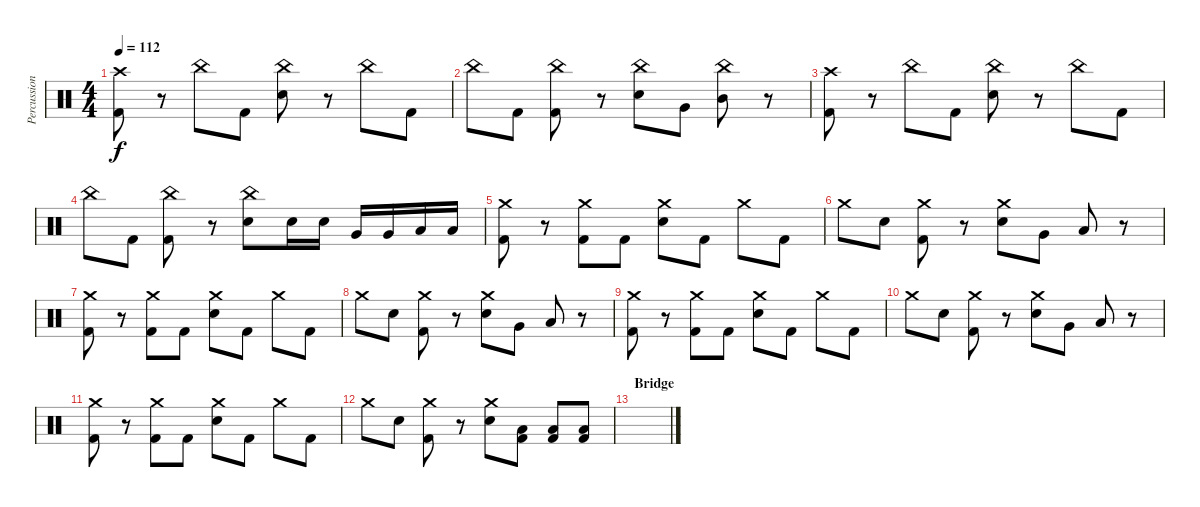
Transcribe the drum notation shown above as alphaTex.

\track ("Percussion" "Percussion") {instrument percussion}
\staff {score}
\articulation defaults
\ts (4 4)
\tempo 112
\clef neutral
\ks c
("Crash high (hit)" "Kick (hit) 2").8{dy f} r.8 "China (hit)".8 "Kick (hit) 2".8 ("China (hit)" "Snare (hit) 2").8 r.8 "China (hit)".8 "Kick (hit) 2".8 |
"China (hit)".8 "Kick (hit) 2".8 ("China (hit)" "Kick (hit) 2").8 r.8 ("China (hit)" "Snare (hit) 2").8 "Very Low Tom (hit)".8 ("China (hit)" "Mid Tom (hit)").8 r.8 |
("Crash high (hit)" "Kick (hit) 2").8 r.8 "China (hit)".8 "Kick (hit) 2".8 ("China (hit)" "Snare (hit) 2").8 r.8 "China (hit)".8 "Kick (hit) 2".8 |
"China (hit)".8 "Kick (hit) 2".8 ("China (hit)" "Kick (hit) 2").8 r.8 ("China (hit)" "Snare (hit) 2").8 "Snare (hit) 2".16 "Snare (hit) 2".16 "Very Low Tom (hit)".16 "Very Low Tom (hit)".16 "Low Floor Tom (hit)".16 "Low Floor Tom (hit)".16 |
("Crash medium (hit)" "Kick (hit) 2").8 r.8 ("Crash medium (hit)" "Kick (hit) 2").8 "Kick (hit) 2".8 ("Crash medium (hit)" "Snare (hit) 2").8 "Kick (hit) 2".8 "Crash medium (hit)".8 "Kick (hit) 2".8 |
"Crash medium (hit)".8 "Snare (hit) 2".8 ("Crash medium (hit)" "Kick (hit) 2").8 r.8 ("Crash medium (hit)" "Snare (hit) 2").8 "Very Low Tom (hit)".8 "Low Tom (hit)".8 r.8 |
("Crash medium (hit)" "Kick (hit) 2").8 r.8 ("Crash medium (hit)" "Kick (hit) 2").8 "Kick (hit) 2".8 ("Crash medium (hit)" "Snare (hit) 2").8 "Kick (hit) 2".8 "Crash medium (hit)".8 "Kick (hit) 2".8 |
"Crash medium (hit)".8 "Snare (hit) 2".8 ("Crash medium (hit)" "Kick (hit) 2").8 r.8 ("Crash medium (hit)" "Snare (hit) 2").8 "Very Low Tom (hit)".8 "Low Tom (hit)".8 r.8 |
("Crash medium (hit)" "Kick (hit) 2").8 r.8 ("Crash medium (hit)" "Kick (hit) 2").8 "Kick (hit) 2".8 ("Crash medium (hit)" "Snare (hit) 2").8 "Kick (hit) 2".8 "Crash medium (hit)".8 "Kick (hit) 2".8 |
"Crash medium (hit)".8 "Snare (hit) 2".8 ("Crash medium (hit)" "Kick (hit) 2").8 r.8 ("Crash medium (hit)" "Snare (hit) 2").8 "Very Low Tom (hit)".8 "Low Tom (hit)".8 r.8 |
("Crash medium (hit)" "Kick (hit) 2").8 r.8 ("Crash medium (hit)" "Kick (hit) 2").8 "Kick (hit) 2".8 ("Crash medium (hit)" "Snare (hit) 2").8 "Kick (hit) 2".8 "Crash medium (hit)".8 "Kick (hit) 2".8 |
"Crash medium (hit)".8 "Snare (hit) 2".8 ("Crash medium (hit)" "Kick (hit) 2").8 r.8 ("Crash medium (hit)" "Snare (hit) 2").8 ("Low Floor Tom (hit)" "Kick (hit) 2").8 ("Low Floor Tom (hit)" "Kick (hit) 2").8 ("Low Floor Tom (hit)" "Kick (hit) 2").8 |
\section ("" "Bridge")
